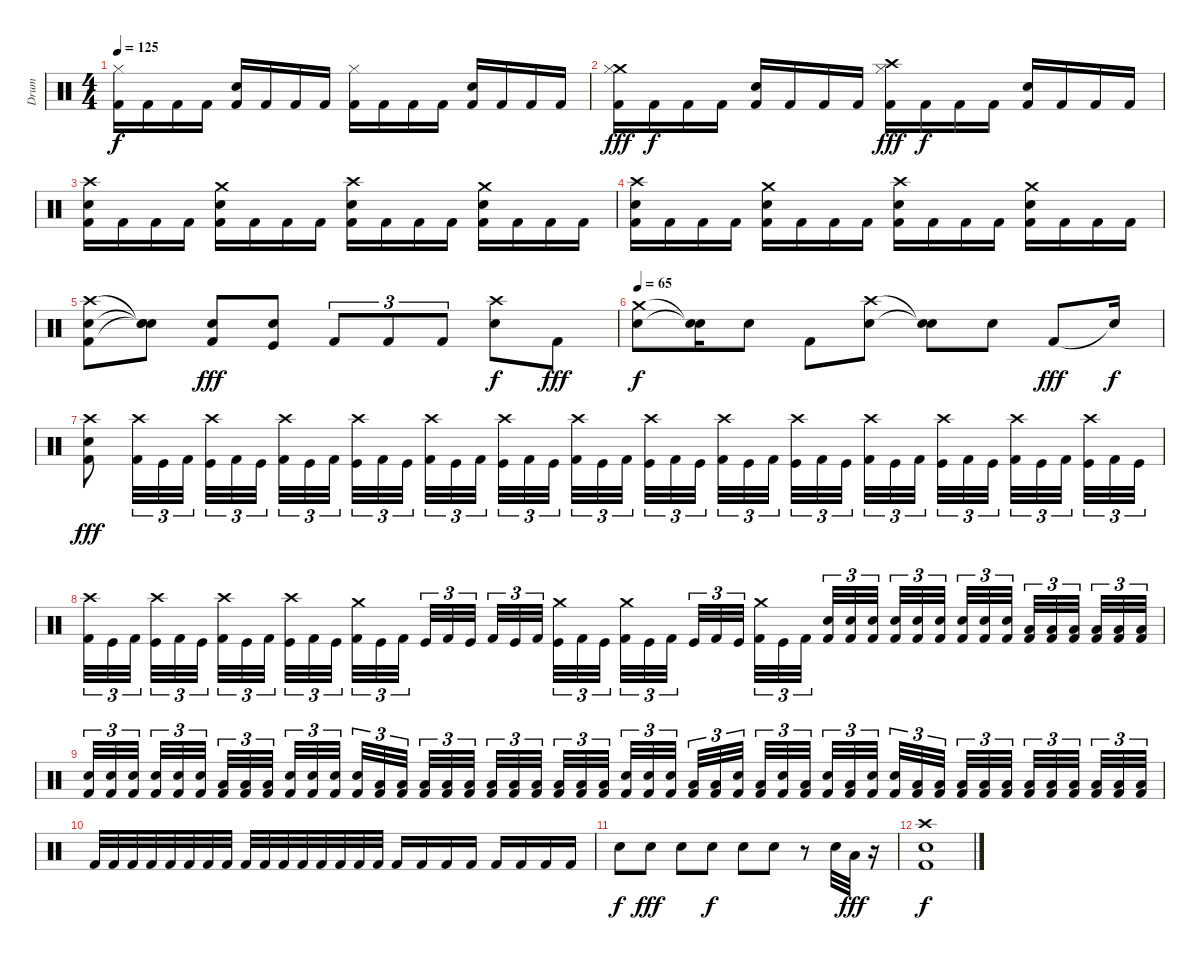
\track ("Drum" "Drum") {instrument percussion}
\staff {score}
\articulation defaults
\ts (4 4)
\tempo 125
\clef neutral
\ks c
("Hi-Hat (closed)" "Kick (hit) 2").16{dy f} "Kick (hit) 2".16 "Kick (hit) 2".16 "Kick (hit) 2".16 ("Electric Snare (hit)" "Kick (hit) 2").16 "Kick (hit) 2".16 "Kick (hit) 2".16 "Kick (hit) 2".16 ("Hi-Hat (closed)" "Kick (hit) 2").16 "Kick (hit) 2".16 "Kick (hit) 2".16 "Kick (hit) 2".16 ("Electric Snare (hit)" "Kick (hit) 2").16 "Kick (hit) 2".16 "Kick (hit) 2".16 "Kick (hit) 2".16 |
("Crash medium (hit)" "Hi-Hat (closed)" "Kick (hit) 2").16{dy fff} "Kick (hit) 2".16{dy f} "Kick (hit) 2".16 "Kick (hit) 2".16 ("Electric Snare (hit)" "Kick (hit) 2").16 "Kick (hit) 2".16 "Kick (hit) 2".16 "Kick (hit) 2".16 ("Crash high (hit)" "Hi-Hat (closed)" "Kick (hit) 2").16{dy fff} "Kick (hit) 2".16{dy f} "Kick (hit) 2".16 "Kick (hit) 2".16 ("Electric Snare (hit)" "Kick (hit) 2").16 "Kick (hit) 2".16 "Kick (hit) 2".16 "Kick (hit) 2".16 |
("Crash high (hit)" "Electric Snare (hit)" "Kick (hit) 2").16 "Kick (hit) 2".16 "Kick (hit) 2".16 "Kick (hit) 2".16 ("Crash medium (hit)" "Electric Snare (hit)" "Kick (hit) 2").16 "Kick (hit) 2".16 "Kick (hit) 2".16 "Kick (hit) 2".16 ("Crash high (hit)" "Electric Snare (hit)" "Kick (hit) 2").16 "Kick (hit) 2".16 "Kick (hit) 2".16 "Kick (hit) 2".16 ("Crash medium (hit)" "Electric Snare (hit)" "Kick (hit) 2").16 "Kick (hit) 2".16 "Kick (hit) 2".16 "Kick (hit) 2".16 |
("Crash high (hit)" "Electric Snare (hit)" "Kick (hit) 2").16 "Kick (hit) 2".16 "Kick (hit) 2".16 "Kick (hit) 2".16 ("Crash medium (hit)" "Electric Snare (hit)" "Kick (hit) 2").16 "Kick (hit) 2".16 "Kick (hit) 2".16 "Kick (hit) 2".16 ("Crash high (hit)" "Electric Snare (hit)" "Kick (hit) 2").16 "Kick (hit) 2".16 "Kick (hit) 2".16 "Kick (hit) 2".16 ("Crash medium (hit)" "Electric Snare (hit)" "Kick (hit) 2").16 "Kick (hit) 2".16 "Kick (hit) 2".16 "Kick (hit) 2".16 |
("Crash high (hit)" "Electric Snare (hit)" "Kick (hit) 2").8 ("Snare (hit)"{t} "Snare (hit)"{t} "Snare (hit)"{t}).8 ("Electric Snare (hit)" "Kick (hit) 2").8{dy fff} ("Electric Snare (hit)" "Kick (hit)").8 "Kick (hit) 2".8{tu (3 2)} "Kick (hit) 2".8{tu (3 2)} "Kick (hit) 2".8{tu (3 2)} ("Crash high (hit)" "Electric Snare (hit)").8{dy f} "Kick (hit) 2".8{dy fff} |
\tempo 65
("Crash medium (hit)" "Electric Snare (hit)").8{dy f} ("Snare (hit)"{t} "Snare (hit)"{t}).16 "Electric Snare (hit)".8 "Kick (hit) 2".8 ("Crash high (hit)" "Electric Snare (hit)").8 ("Snare (hit)"{t} "Snare (hit)"{t}).8 "Electric Snare (hit)".8 "Kick (hit) 2".8{dy fff} "Snare (hit)"{t}.16{dy f} |
("Crash high (hit)" "Electric Snare (hit)" "Kick (hit) 2").8{dy fff} ("Crash high (hit)" "Kick (hit) 2").32{tu (3 2)} "Kick (hit)".32{tu (3 2)} "Kick (hit) 2".32{tu (3 2) beam splitsecondary} ("Crash high (hit)" "Kick (hit)").32{tu (3 2)} "Kick (hit) 2".32{tu (3 2)} "Kick (hit)".32{tu (3 2)} ("Crash high (hit)" "Kick (hit) 2").32{tu (3 2)} "Kick (hit)".32{tu (3 2)} "Kick (hit) 2".32{tu (3 2) beam splitsecondary} ("Crash high (hit)" "Kick (hit)").32{tu (3 2)} "Kick (hit) 2".32{tu (3 2)} "Kick (hit)".32{tu (3 2) beam splitsecondary} ("Crash high (hit)" "Kick (hit) 2").32{tu (3 2)} "Kick (hit)".32{tu (3 2)} "Kick (hit) 2".32{tu (3 2) beam splitsecondary} ("Crash high (hit)" "Kick (hit)").32{tu (3 2)} "Kick (hit) 2".32{tu (3 2)} "Kick (hit)".32{tu (3 2)} ("Crash high (hit)" "Kick (hit) 2").32{tu (3 2)} "Kick (hit)".32{tu (3 2)} "Kick (hit) 2".32{tu (3 2) beam splitsecondary} ("Crash high (hit)" "Kick (hit)").32{tu (3 2)} "Kick (hit) 2".32{tu (3 2)} "Kick (hit)".32{tu (3 2) beam splitsecondary} ("Crash high (hit)" "Kick (hit) 2").32{tu (3 2)} "Kick (hit)".32{tu (3 2)} "Kick (hit) 2".32{tu (3 2) beam splitsecondary} ("Crash high (hit)" "Kick (hit)").32{tu (3 2)} "Kick (hit) 2".32{tu (3 2)} "Kick (hit)".32{tu (3 2)} ("Crash high (hit)" "Kick (hit) 2").32{tu (3 2)} "Kick (hit)".32{tu (3 2)} "Kick (hit) 2".32{tu (3 2) beam splitsecondary} ("Crash high (hit)" "Kick (hit)").32{tu (3 2)} "Kick (hit) 2".32{tu (3 2)} "Kick (hit)".32{tu (3 2) beam splitsecondary} ("Crash high (hit)" "Kick (hit) 2").32{tu (3 2)} "Kick (hit)".32{tu (3 2)} "Kick (hit) 2".32{tu (3 2) beam splitsecondary} ("Crash high (hit)" "Kick (hit)").32{tu (3 2)} "Kick (hit) 2".32{tu (3 2)} "Kick (hit)".32{tu (3 2)} |
("Crash high (hit)" "Kick (hit) 2").32{tu (3 2)} "Kick (hit)".32{tu (3 2)} "Kick (hit) 2".32{tu (3 2) beam splitsecondary} ("Crash high (hit)" "Kick (hit)").32{tu (3 2)} "Kick (hit) 2".32{tu (3 2)} "Kick (hit)".32{tu (3 2) beam splitsecondary} ("Crash high (hit)" "Kick (hit) 2").32{tu (3 2)} "Kick (hit)".32{tu (3 2)} "Kick (hit) 2".32{tu (3 2) beam splitsecondary} ("Crash high (hit)" "Kick (hit)").32{tu (3 2)} "Kick (hit) 2".32{tu (3 2)} "Kick (hit)".32{tu (3 2)} ("Crash medium (hit)" "Kick (hit) 2").32{tu (3 2)} "Kick (hit)".32{tu (3 2)} "Kick (hit) 2".32{tu (3 2) beam splitsecondary} "Kick (hit)".32{tu (3 2)} "Kick (hit) 2".32{tu (3 2)} "Kick (hit)".32{tu (3 2) beam splitsecondary} "Kick (hit) 2".32{tu (3 2)} "Kick (hit)".32{tu (3 2)} "Kick (hit) 2".32{tu (3 2) beam splitsecondary} ("Crash medium (hit)" "Kick (hit)").32{tu (3 2)} "Kick (hit) 2".32{tu (3 2)} "Kick (hit)".32{tu (3 2)} ("Crash medium (hit)" "Kick (hit) 2").32{tu (3 2)} "Kick (hit)".32{tu (3 2)} "Kick (hit) 2".32{tu (3 2) beam splitsecondary} "Kick (hit)".32{tu (3 2)} "Kick (hit) 2".32{tu (3 2)} "Kick (hit)".32{tu (3 2) beam splitsecondary} ("Crash medium (hit)" "Kick (hit) 2").32{tu (3 2)} "Kick (hit)".32{tu (3 2)} "Kick (hit) 2".32{tu (3 2) beam splitsecondary} ("Electric Snare (hit)" "Kick (hit) 2").32{tu (3 2)} ("Electric Snare (hit)" "Kick (hit) 2").32{tu (3 2)} ("Electric Snare (hit)" "Kick (hit) 2").32{tu (3 2)} ("Electric Snare (hit)" "Kick (hit) 2").32{tu (3 2)} ("Electric Snare (hit)" "Kick (hit) 2").32{tu (3 2)} ("Electric Snare (hit)" "Kick (hit) 2").32{tu (3 2) beam splitsecondary} ("Electric Snare (hit)" "Kick (hit) 2").32{tu (3 2)} ("Electric Snare (hit)" "Kick (hit) 2").32{tu (3 2)} ("Electric Snare (hit)" "Kick (hit) 2").32{tu (3 2) beam splitsecondary} ("Low Tom (hit)" "Kick (hit) 2").32{tu (3 2)} ("Low Tom (hit)" "Kick (hit) 2").32{tu (3 2)} ("Low Tom (hit)" "Kick (hit) 2").32{tu (3 2) beam splitsecondary} ("Low Tom (hit)" "Kick (hit) 2").32{tu (3 2)} ("Low Tom (hit)" "Kick (hit) 2").32{tu (3 2)} ("Low Tom (hit)" "Kick (hit) 2").32{tu (3 2)} |
("Electric Snare (hit)" "Kick (hit) 2").32{tu (3 2)} ("Electric Snare (hit)" "Kick (hit) 2").32{tu (3 2)} ("Electric Snare (hit)" "Kick (hit) 2").32{tu (3 2) beam splitsecondary} ("Electric Snare (hit)" "Kick (hit) 2").32{tu (3 2)} ("Electric Snare (hit)" "Kick (hit) 2").32{tu (3 2)} ("Electric Snare (hit)" "Kick (hit) 2").32{tu (3 2) beam splitsecondary} ("Low Tom (hit)" "Kick (hit) 2").32{tu (3 2)} ("Low Tom (hit)" "Kick (hit) 2").32{tu (3 2)} ("Low Tom (hit)" "Kick (hit) 2").32{tu (3 2) beam splitsecondary} ("Electric Snare (hit)" "Kick (hit) 2").32{tu (3 2)} ("Electric Snare (hit)" "Kick (hit) 2").32{tu (3 2)} ("Electric Snare (hit)" "Kick (hit) 2").32{tu (3 2)} ("Electric Snare (hit)" "Kick (hit) 2").32{tu (3 2)} ("Low Tom (hit)" "Kick (hit) 2").32{tu (3 2)} ("Low Tom (hit)" "Kick (hit) 2").32{tu (3 2) beam splitsecondary} ("Low Tom (hit)" "Kick (hit) 2").32{tu (3 2)} ("Low Tom (hit)" "Kick (hit) 2").32{tu (3 2)} ("Low Tom (hit)" "Kick (hit) 2").32{tu (3 2) beam splitsecondary} ("Low Tom (hit)" "Kick (hit) 2").32{tu (3 2)} ("Low Tom (hit)" "Kick (hit) 2").32{tu (3 2)} ("Low Tom (hit)" "Kick (hit) 2").32{tu (3 2) beam splitsecondary} ("Low Tom (hit)" "Kick (hit) 2").32{tu (3 2)} ("Low Tom (hit)" "Kick (hit) 2").32{tu (3 2)} ("Low Tom (hit)" "Kick (hit) 2").32{tu (3 2)} ("Electric Snare (hit)" "Kick (hit) 2").32{tu (3 2)} ("Electric Snare (hit)" "Kick (hit) 2").32{tu (3 2)} ("Electric Snare (hit)" "Kick (hit) 2").32{tu (3 2) beam splitsecondary} ("Low Tom (hit)" "Kick (hit) 2").32{tu (3 2)} ("Low Tom (hit)" "Kick (hit) 2").32{tu (3 2)} ("Electric Snare (hit)" "Kick (hit) 2").32{tu (3 2) beam splitsecondary} ("Low Tom (hit)" "Kick (hit) 2").32{tu (3 2)} ("Electric Snare (hit)" "Kick (hit) 2").32{tu (3 2)} ("Low Tom (hit)" "Kick (hit) 2").32{tu (3 2) beam splitsecondary} ("Electric Snare (hit)" "Kick (hit) 2").32{tu (3 2)} ("Low Tom (hit)" "Kick (hit) 2").32{tu (3 2)} ("Electric Snare (hit)" "Kick (hit) 2").32{tu (3 2)} ("Electric Snare (hit)" "Kick (hit) 2").32{tu (3 2)} ("Low Tom (hit)" "Kick (hit) 2").32{tu (3 2)} ("Low Tom (hit)" "Kick (hit) 2").32{tu (3 2) beam splitsecondary} ("Low Tom (hit)" "Kick (hit) 2").32{tu (3 2)} ("Low Tom (hit)" "Kick (hit) 2").32{tu (3 2)} ("Low Tom (hit)" "Kick (hit) 2").32{tu (3 2) beam splitsecondary} ("Low Tom (hit)" "Kick (hit) 2").32{tu (3 2)} ("Low Tom (hit)" "Kick (hit) 2").32{tu (3 2)} ("Low Tom (hit)" "Kick (hit) 2").32{tu (3 2) beam splitsecondary} ("Low Tom (hit)" "Kick (hit) 2").32{tu (3 2)} ("Low Tom (hit)" "Kick (hit) 2").32{tu (3 2)} ("Low Tom (hit)" "Kick (hit) 2").32{tu (3 2)} |
"Kick (hit) 2".32 "Kick (hit) 2".32 "Kick (hit) 2".32 "Kick (hit) 2".32 "Kick (hit) 2".32 "Kick (hit) 2".32 "Kick (hit) 2".32 "Kick (hit) 2".32 "Kick (hit) 2".32 "Kick (hit) 2".32 "Kick (hit) 2".32 "Kick (hit) 2".32 "Kick (hit) 2".32 "Kick (hit) 2".32 "Kick (hit) 2".32 "Kick (hit) 2".32 "Kick (hit) 2".16 "Kick (hit) 2".16 "Kick (hit) 2".16 "Kick (hit) 2".16 "Kick (hit) 2".16 "Kick (hit) 2".16 "Kick (hit) 2".16 "Kick (hit) 2".16 |
"Electric Snare (hit)".8{dy f} "Electric Snare (hit)".8{dy fff} "Electric Snare (hit)".8 "Electric Snare (hit)".8{dy f} "Electric Snare (hit)".8 "Electric Snare (hit)".8 r.8 "Electric Snare (hit)".32 "Low Tom (hit)".32{dy fff} r.16 |
("Crash high (hit)" "Electric Snare (hit)" "Kick (hit) 2").1{dy f}
